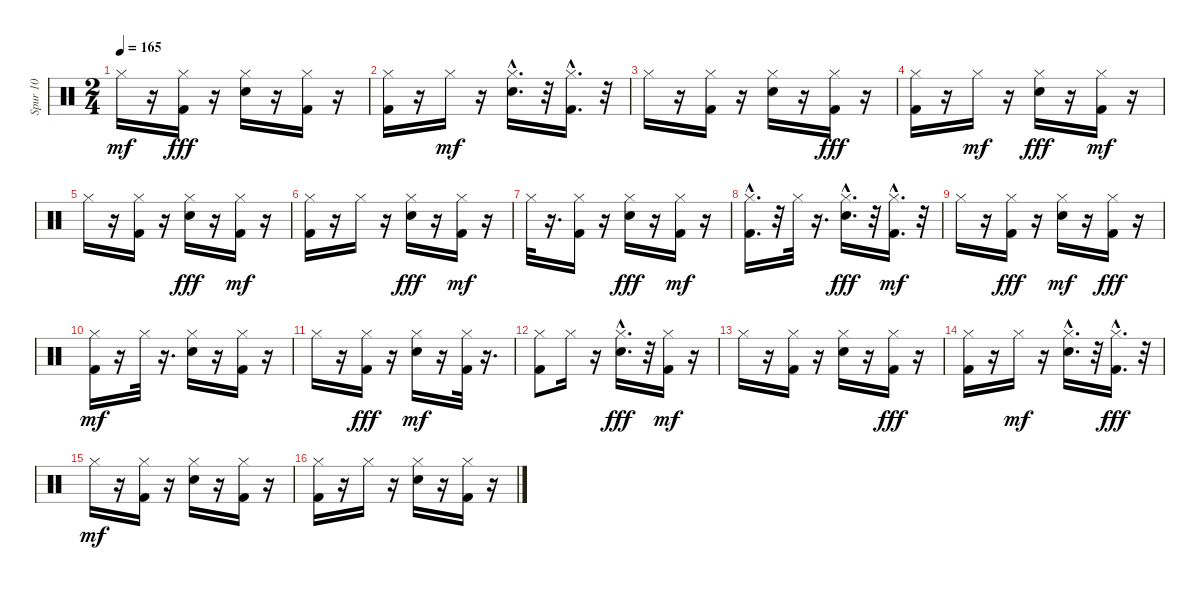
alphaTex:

\track ("Spur 10" "Spur 10") {instrument percussion}
\staff {score}
\articulation defaults
\ts (2 4)
\tempo 165
\clef neutral
\ks c "Hi-Hat (closed)".16{dy mf}
r.16 ("Hi-Hat (closed)" "Kick (hit) 2").16{dy fff} r.16 ("Hi-Hat (closed)" "Electric Snare (hit)").16 r.16 ("Hi-Hat (closed)" "Kick (hit) 2").16 r.16 |
("Hi-Hat (closed)" "Kick (hit) 2").16 r.16 "Hi-Hat (closed)".16{dy mf} r.16 ("Electric Snare (hit)"{hac} "Hi-Hat (closed)").16{d} r.32 ("Kick (hit) 2"{hac} "Hi-Hat (closed)").16{d} r.32 |
"Hi-Hat (closed)".16 r.16 ("Kick (hit) 2" "Hi-Hat (closed)").16 r.16 ("Electric Snare (hit)" "Hi-Hat (closed)").16 r.16 ("Hi-Hat (closed)" "Kick (hit) 2").16{dy fff} r.16 |
("Hi-Hat (closed)" "Kick (hit) 2").16 r.16 "Hi-Hat (closed)".16{dy mf} r.16 ("Hi-Hat (closed)" "Electric Snare (hit)").16{dy fff} r.16 ("Kick (hit) 2" "Hi-Hat (closed)").16{dy mf} r.16 |
"Hi-Hat (closed)".16 r.16 ("Kick (hit) 2" "Hi-Hat (closed)").16 r.16 ("Hi-Hat (closed)" "Electric Snare (hit)").16{dy fff} r.16 ("Kick (hit) 2" "Hi-Hat (closed)").16{dy mf} r.16 |
("Kick (hit) 2" "Hi-Hat (closed)").16 r.16 "Hi-Hat (closed)".16 r.16 ("Hi-Hat (closed)" "Electric Snare (hit)").16{dy fff} r.16 ("Kick (hit) 2" "Hi-Hat (closed)").16{dy mf} r.16 |
"Hi-Hat (closed)".32 r.16{d} ("Kick (hit) 2" "Hi-Hat (closed)").16 r.16 ("Hi-Hat (closed)" "Electric Snare (hit)").16{dy fff} r.16 ("Kick (hit) 2" "Hi-Hat (closed)").16{dy mf} r.16 |
("Kick (hit) 2"{hac} "Hi-Hat (closed)").16{d} r.32 "Hi-Hat (closed)".32 r.16{d} ("Hi-Hat (closed)" "Electric Snare (hit)"{hac}).16{d dy fff} r.32 ("Kick (hit) 2"{hac} "Hi-Hat (closed)").16{d dy mf} r.32 |
"Hi-Hat (closed)".16 r.16 ("Hi-Hat (closed)" "Kick (hit) 2").16{dy fff} r.16 ("Electric Snare (hit)" "Hi-Hat (closed)").16{dy mf} r.16 ("Hi-Hat (closed)" "Kick (hit) 2").16{dy fff} r.16 |
("Kick (hit) 2" "Hi-Hat (closed)").16{dy mf} r.16 "Hi-Hat (closed)".32 r.16{d} ("Electric Snare (hit)" "Hi-Hat (closed)").16 r.16 ("Kick (hit) 2" "Hi-Hat (closed)").16 r.16 |
"Hi-Hat (closed)".16 r.16 ("Hi-Hat (closed)" "Kick (hit) 2").16{dy fff} r.16 ("Electric Snare (hit)" "Hi-Hat (closed)").16{dy mf} r.16 ("Kick (hit) 2" "Hi-Hat (closed)").32 r.16{d} |
("Kick (hit) 2" "Hi-Hat (closed)").8 "Hi-Hat (closed)".16 r.16 ("Hi-Hat (closed)" "Electric Snare (hit)"{hac}).16{d dy fff} r.32 ("Kick (hit) 2" "Hi-Hat (closed)").16{dy mf} r.16 |
"Hi-Hat (closed)".16 r.16 ("Kick (hit) 2" "Hi-Hat (closed)").16 r.16 ("Electric Snare (hit)" "Hi-Hat (closed)").16 r.16 ("Hi-Hat (closed)" "Kick (hit) 2").16{dy fff} r.16 |
("Hi-Hat (closed)" "Kick (hit) 2").16 r.16 "Hi-Hat (closed)".16{dy mf} r.16 ("Electric Snare (hit)"{hac} "Hi-Hat (closed)").16{d} r.32 ("Hi-Hat (closed)" "Kick (hit) 2"{hac}).16{d dy fff} r.32 |
"Hi-Hat (closed)".16{dy mf} r.16 ("Kick (hit) 2" "Hi-Hat (closed)").16 r.16 ("Electric Snare (hit)" "Hi-Hat (closed)").16 r.16 ("Kick (hit) 2" "Hi-Hat (closed)").16 r.16 |
("Kick (hit) 2" "Hi-Hat (closed)").16 r.16 "Hi-Hat (closed)".16 r.16 ("Electric Snare (hit)" "Hi-Hat (closed)").16 r.16 ("Kick (hit) 2" "Hi-Hat (closed)").16 r.16
